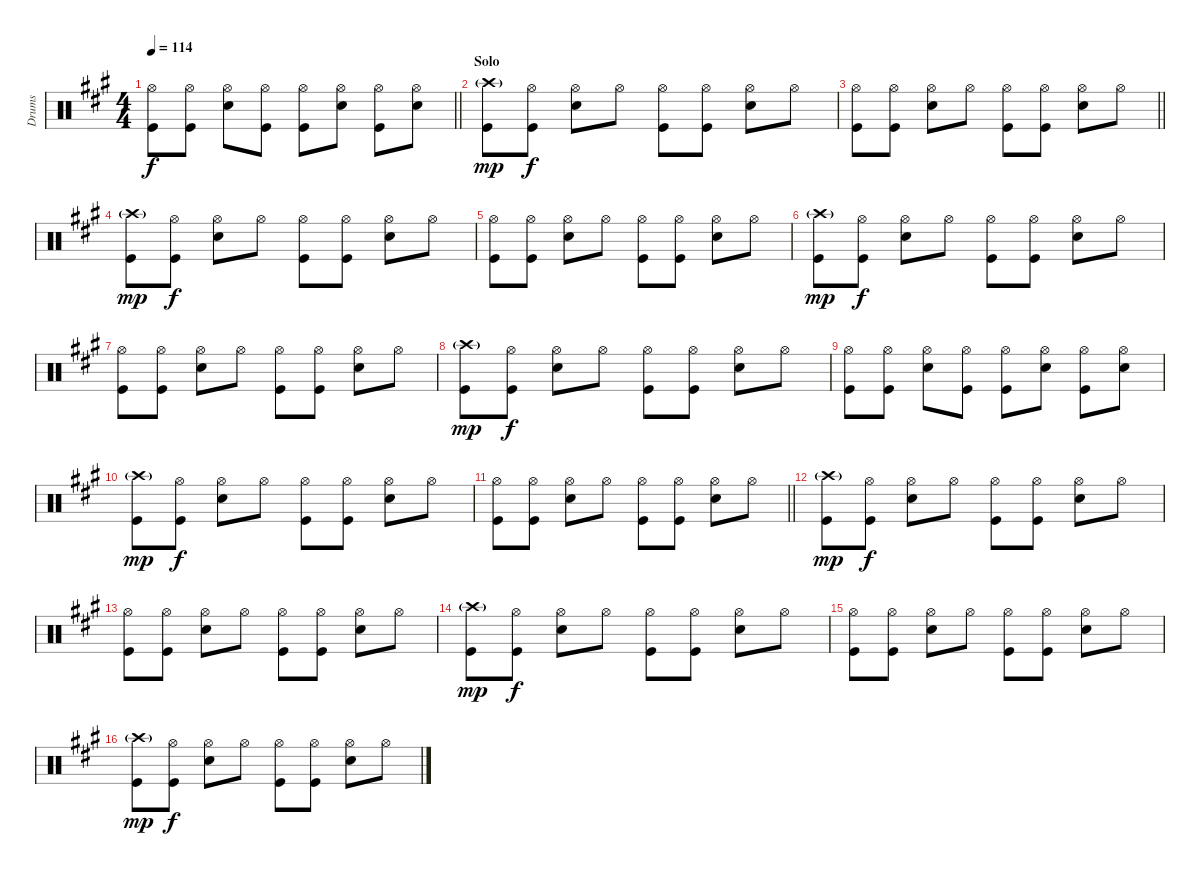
\track ("Drums" "Drums") {instrument percussion}
\staff {score}
\articulation defaults
\ts (4 4)
\tempo 114
\clef neutral
\barLineRight lightlight
\ks f#minor
("Hi-Hat (open)" "Kick (hit)").8{dy f} ("Hi-Hat (open)" "Kick (hit)").8 ("Hi-Hat (open)" "Snare (hit) 2").8 ("Hi-Hat (open)" "Kick (hit)").8 ("Hi-Hat (open)" "Kick (hit)").8 ("Hi-Hat (open)" "Snare (hit) 2").8 ("Hi-Hat (open)" "Kick (hit)").8 ("Hi-Hat (open)" "Snare (hit) 2").8 |
\section ("" "Solo")
("Crash high (hit)"{g} "Kick (hit)").8{dy mp} ("Hi-Hat (open)" "Kick (hit)").8{dy f} ("Hi-Hat (open)" "Snare (hit) 2").8 "Hi-Hat (open)".8 ("Hi-Hat (open)" "Kick (hit)").8 ("Hi-Hat (open)" "Kick (hit)").8 ("Hi-Hat (open)" "Snare (hit) 2").8 "Hi-Hat (open)".8 |
\barLineRight lightlight
("Hi-Hat (open)" "Kick (hit)").8 ("Hi-Hat (open)" "Kick (hit)").8 ("Hi-Hat (open)" "Snare (hit) 2").8 "Hi-Hat (open)".8 ("Hi-Hat (open)" "Kick (hit)").8 ("Hi-Hat (open)" "Kick (hit)").8 ("Hi-Hat (open)" "Snare (hit) 2").8 "Hi-Hat (open)".8 |
("Crash high (hit)"{g} "Kick (hit)").8{dy mp} ("Hi-Hat (open)" "Kick (hit)").8{dy f} ("Hi-Hat (open)" "Snare (hit) 2").8 "Hi-Hat (open)".8 ("Hi-Hat (open)" "Kick (hit)").8 ("Hi-Hat (open)" "Kick (hit)").8 ("Hi-Hat (open)" "Snare (hit) 2").8 "Hi-Hat (open)".8 |
("Hi-Hat (open)" "Kick (hit)").8 ("Hi-Hat (open)" "Kick (hit)").8 ("Hi-Hat (open)" "Snare (hit) 2").8 "Hi-Hat (open)".8 ("Hi-Hat (open)" "Kick (hit)").8 ("Hi-Hat (open)" "Kick (hit)").8 ("Hi-Hat (open)" "Snare (hit) 2").8 "Hi-Hat (open)".8 |
("Crash high (hit)"{g} "Kick (hit)").8{dy mp} ("Hi-Hat (open)" "Kick (hit)").8{dy f} ("Hi-Hat (open)" "Snare (hit) 2").8 "Hi-Hat (open)".8 ("Hi-Hat (open)" "Kick (hit)").8 ("Hi-Hat (open)" "Kick (hit)").8 ("Hi-Hat (open)" "Snare (hit) 2").8 "Hi-Hat (open)".8 |
("Hi-Hat (open)" "Kick (hit)").8 ("Hi-Hat (open)" "Kick (hit)").8 ("Hi-Hat (open)" "Snare (hit) 2").8 "Hi-Hat (open)".8 ("Hi-Hat (open)" "Kick (hit)").8 ("Hi-Hat (open)" "Kick (hit)").8 ("Hi-Hat (open)" "Snare (hit) 2").8 "Hi-Hat (open)".8 |
("Crash high (hit)"{g} "Kick (hit)").8{dy mp} ("Hi-Hat (open)" "Kick (hit)").8{dy f} ("Hi-Hat (open)" "Snare (hit) 2").8 "Hi-Hat (open)".8 ("Hi-Hat (open)" "Kick (hit)").8 ("Hi-Hat (open)" "Kick (hit)").8 ("Hi-Hat (open)" "Snare (hit) 2").8 "Hi-Hat (open)".8 |
("Hi-Hat (open)" "Kick (hit)").8 ("Hi-Hat (open)" "Kick (hit)").8 ("Hi-Hat (open)" "Snare (hit) 2").8 ("Hi-Hat (open)" "Kick (hit)").8 ("Hi-Hat (open)" "Kick (hit)").8 ("Hi-Hat (open)" "Snare (hit) 2").8 ("Hi-Hat (open)" "Kick (hit)").8 ("Hi-Hat (open)" "Snare (hit) 2").8 |
("Crash high (hit)"{g} "Kick (hit)").8{dy mp} ("Hi-Hat (open)" "Kick (hit)").8{dy f} ("Hi-Hat (open)" "Snare (hit) 2").8 "Hi-Hat (open)".8 ("Hi-Hat (open)" "Kick (hit)").8 ("Hi-Hat (open)" "Kick (hit)").8 ("Hi-Hat (open)" "Snare (hit) 2").8 "Hi-Hat (open)".8 |
\barLineRight lightlight
("Hi-Hat (open)" "Kick (hit)").8 ("Hi-Hat (open)" "Kick (hit)").8 ("Hi-Hat (open)" "Snare (hit) 2").8 "Hi-Hat (open)".8 ("Hi-Hat (open)" "Kick (hit)").8 ("Hi-Hat (open)" "Kick (hit)").8 ("Hi-Hat (open)" "Snare (hit) 2").8 "Hi-Hat (open)".8 |
("Crash high (hit)"{g} "Kick (hit)").8{dy mp} ("Hi-Hat (open)" "Kick (hit)").8{dy f} ("Hi-Hat (open)" "Snare (hit) 2").8 "Hi-Hat (open)".8 ("Hi-Hat (open)" "Kick (hit)").8 ("Hi-Hat (open)" "Kick (hit)").8 ("Hi-Hat (open)" "Snare (hit) 2").8 "Hi-Hat (open)".8 |
("Hi-Hat (open)" "Kick (hit)").8 ("Hi-Hat (open)" "Kick (hit)").8 ("Hi-Hat (open)" "Snare (hit) 2").8 "Hi-Hat (open)".8 ("Hi-Hat (open)" "Kick (hit)").8 ("Hi-Hat (open)" "Kick (hit)").8 ("Hi-Hat (open)" "Snare (hit) 2").8 "Hi-Hat (open)".8 |
("Crash high (hit)"{g} "Kick (hit)").8{dy mp} ("Hi-Hat (open)" "Kick (hit)").8{dy f} ("Hi-Hat (open)" "Snare (hit) 2").8 "Hi-Hat (open)".8 ("Hi-Hat (open)" "Kick (hit)").8 ("Hi-Hat (open)" "Kick (hit)").8 ("Hi-Hat (open)" "Snare (hit) 2").8 "Hi-Hat (open)".8 |
("Hi-Hat (open)" "Kick (hit)").8 ("Hi-Hat (open)" "Kick (hit)").8 ("Hi-Hat (open)" "Snare (hit) 2").8 "Hi-Hat (open)".8 ("Hi-Hat (open)" "Kick (hit)").8 ("Hi-Hat (open)" "Kick (hit)").8 ("Hi-Hat (open)" "Snare (hit) 2").8 "Hi-Hat (open)".8 |
("Crash high (hit)"{g} "Kick (hit)").8{dy mp} ("Hi-Hat (open)" "Kick (hit)").8{dy f} ("Hi-Hat (open)" "Snare (hit) 2").8 "Hi-Hat (open)".8 ("Hi-Hat (open)" "Kick (hit)").8 ("Hi-Hat (open)" "Kick (hit)").8 ("Hi-Hat (open)" "Snare (hit) 2").8 "Hi-Hat (open)".8
